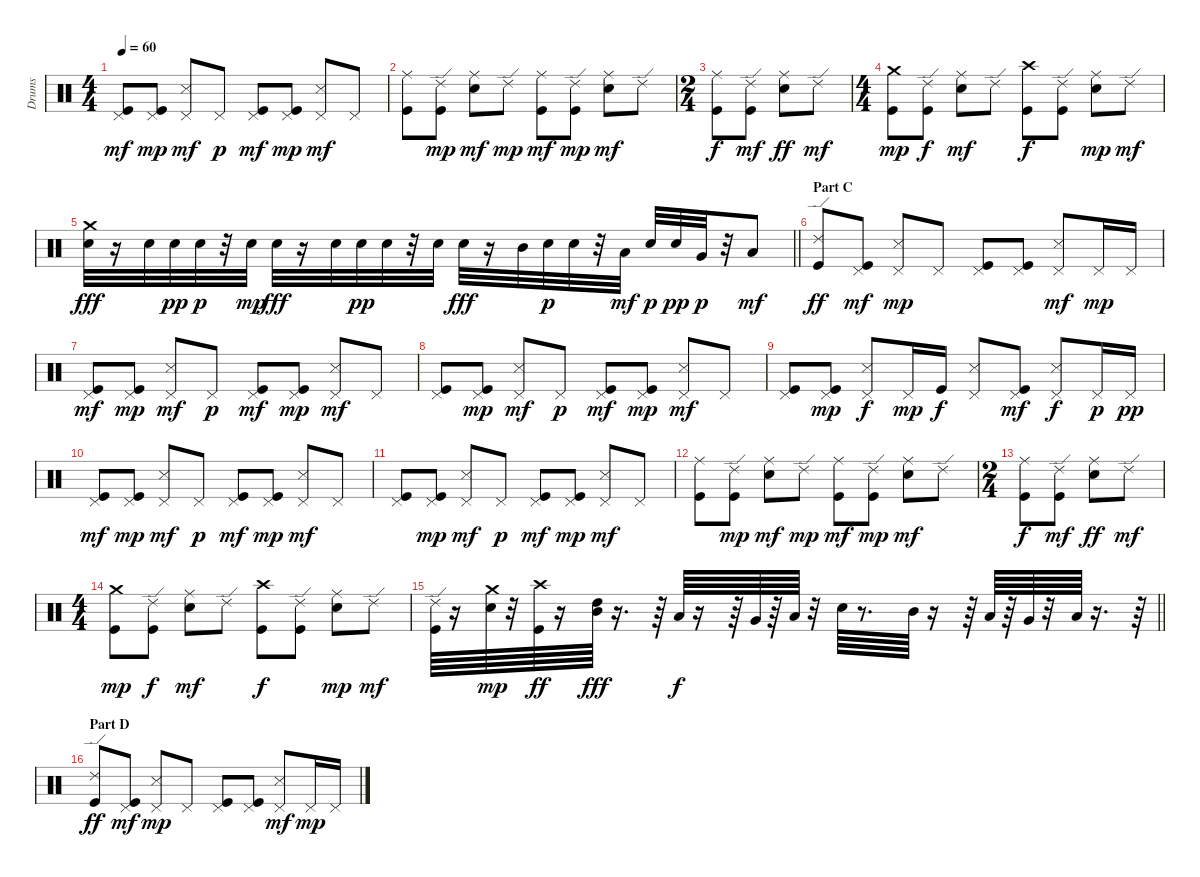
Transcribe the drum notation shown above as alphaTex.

\track ("Drums" "Drums") {instrument percussion}
\staff {score}
\articulation defaults
\ts (4 4)
\tempo 60
\clef neutral
\ks c
("Pedal Hi-Hat (hit)" "Kick (hit)").8{dy mf} ("Pedal Hi-Hat (hit)" "Kick (hit)").8{dy mp} ("Pedal Hi-Hat (hit)" "Snare (side stick) 3").8{dy mf} "Pedal Hi-Hat (hit)".8{dy p} ("Pedal Hi-Hat (hit)" "Kick (hit)").8{dy mf} ("Pedal Hi-Hat (hit)" "Kick (hit)").8{dy mp} ("Pedal Hi-Hat (hit)" "Snare (side stick) 3").8{dy mf} "Pedal Hi-Hat (hit)".8 |
("Ride (middle)" "Kick (hit)").8{volume 11} ("Ride (edge) 2" "Kick (hit)").8{dy mp} ("Ride (middle)" "Electric Snare (hit)").8{dy mf} "Ride (edge) 2".8{dy mp} ("Ride (middle)" "Kick (hit)").8{dy mf} ("Ride (edge) 2" "Kick (hit)").8{dy mp} ("Ride (middle)" "Electric Snare (hit)").8{dy mf} "Ride (edge) 2".8 |
\ts (2 4)
("Ride (middle)" "Kick (hit)").8{dy f} ("Ride (edge) 2" "Kick (hit)").8{dy mf} ("Ride (middle)" "Electric Snare (hit)").8{dy ff} "Ride (edge) 2".8{dy mf} |
\ts (4 4)
("Crash medium (hit)" "Kick (hit)").8{dy mp} ("Ride (edge) 2" "Kick (hit)").8{dy f} ("Ride (middle)" "Electric Snare (hit)").8{dy mf} "Ride (edge) 2".8 ("Crash high (hit)" "Kick (hit)").8{dy f} ("Ride (edge) 2" "Kick (hit)").8 ("Ride (middle)" "Electric Snare (hit)").8{dy mp} "Ride (edge) 2".8{dy mf} |
\barLineRight lightlight
("Crash medium (hit)" "Electric Snare (hit)").32{dy fff} r.16 "Electric Snare (hit)".32 "Electric Snare (hit)".32{dy pp} "Electric Snare (hit)".32{dy p} r.32 "Electric Snare (hit)".32{dy mp} "Electric Snare (hit)".32{dy fff} r.16 "Electric Snare (hit)".32 "Electric Snare (hit)".32{dy pp} "Electric Snare (hit)".32 r.32 "Electric Snare (hit)".32 "Electric Snare (hit)".32{dy fff} r.16 "Mid Tom (hit)".32 "Electric Snare (hit)".32{dy p} "Electric Snare (hit)".32 r.32 "Low Tom (hit)".32{dy mf} "Electric Snare (hit)".32{dy p} "Electric Snare (hit)".32{dy pp} "Very Low Tom (hit)".32{dy p} r.32 "Low Floor Tom (hit)".8{dy mf} |
\section ("" "Part C")
("Ride (edge) 2" "Kick (hit)").8{dy ff volume 10} ("Pedal Hi-Hat (hit)" "Kick (hit)").8{dy mf} ("Pedal Hi-Hat (hit)" "Snare (side stick) 3").8{dy mp} "Pedal Hi-Hat (hit)".8 ("Pedal Hi-Hat (hit)" "Kick (hit)").8 ("Pedal Hi-Hat (hit)" "Kick (hit)").8 ("Pedal Hi-Hat (hit)" "Snare (side stick) 3").8{dy mf} "Pedal Hi-Hat (hit)".16{dy mp} "Pedal Hi-Hat (hit)".16 |
("Pedal Hi-Hat (hit)" "Kick (hit)").8{dy mf} ("Pedal Hi-Hat (hit)" "Kick (hit)").8{dy mp} ("Pedal Hi-Hat (hit)" "Snare (side stick) 3").8{dy mf} "Pedal Hi-Hat (hit)".8{dy p} ("Pedal Hi-Hat (hit)" "Kick (hit)").8{dy mf} ("Pedal Hi-Hat (hit)" "Kick (hit)").8{dy mp} ("Pedal Hi-Hat (hit)" "Snare (side stick) 3").8{dy mf} "Pedal Hi-Hat (hit)".8 |
("Pedal Hi-Hat (hit)" "Kick (hit)").8 ("Pedal Hi-Hat (hit)" "Kick (hit)").8{dy mp} ("Pedal Hi-Hat (hit)" "Snare (side stick) 3").8{dy mf} "Pedal Hi-Hat (hit)".8{dy p} ("Pedal Hi-Hat (hit)" "Kick (hit)").8{dy mf} ("Pedal Hi-Hat (hit)" "Kick (hit)").8{dy mp} ("Pedal Hi-Hat (hit)" "Snare (side stick) 3").8{dy mf} "Pedal Hi-Hat (hit)".8 |
("Pedal Hi-Hat (hit)" "Kick (hit)").8 ("Pedal Hi-Hat (hit)" "Kick (hit)").8{dy mp} ("Pedal Hi-Hat (hit)" "Snare (side stick) 3").8{dy f} "Pedal Hi-Hat (hit)".16{dy mp} "Kick (hit)".16{dy f} ("Pedal Hi-Hat (hit)" "Snare (side stick) 3").8 ("Pedal Hi-Hat (hit)" "Kick (hit)").8{dy mf} ("Pedal Hi-Hat (hit)" "Snare (side stick) 3").8{dy f} "Pedal Hi-Hat (hit)".16{dy p} "Pedal Hi-Hat (hit)".16{dy pp} |
("Pedal Hi-Hat (hit)" "Kick (hit)").8{dy mf} ("Pedal Hi-Hat (hit)" "Kick (hit)").8{dy mp} ("Pedal Hi-Hat (hit)" "Snare (side stick) 3").8{dy mf} "Pedal Hi-Hat (hit)".8{dy p} ("Pedal Hi-Hat (hit)" "Kick (hit)").8{dy mf} ("Pedal Hi-Hat (hit)" "Kick (hit)").8{dy mp} ("Pedal Hi-Hat (hit)" "Snare (side stick) 3").8{dy mf} "Pedal Hi-Hat (hit)".8 |
("Pedal Hi-Hat (hit)" "Kick (hit)").8 ("Pedal Hi-Hat (hit)" "Kick (hit)").8{dy mp} ("Pedal Hi-Hat (hit)" "Snare (side stick) 3").8{dy mf} "Pedal Hi-Hat (hit)".8{dy p} ("Pedal Hi-Hat (hit)" "Kick (hit)").8{dy mf} ("Pedal Hi-Hat (hit)" "Kick (hit)").8{dy mp} ("Pedal Hi-Hat (hit)" "Snare (side stick) 3").8{dy mf} "Pedal Hi-Hat (hit)".8 |
("Ride (middle)" "Kick (hit)").8{volume 11} ("Ride (edge) 2" "Kick (hit)").8{dy mp} ("Ride (middle)" "Electric Snare (hit)").8{dy mf} "Ride (edge) 2".8{dy mp} ("Ride (middle)" "Kick (hit)").8{dy mf} ("Ride (edge) 2" "Kick (hit)").8{dy mp} ("Ride (middle)" "Electric Snare (hit)").8{dy mf} "Ride (edge) 2".8 |
\ts (2 4)
("Ride (middle)" "Kick (hit)").8{dy f} ("Ride (edge) 2" "Kick (hit)").8{dy mf} ("Ride (middle)" "Electric Snare (hit)").8{dy ff} "Ride (edge) 2".8{dy mf} |
\ts (4 4)
("Crash medium (hit)" "Kick (hit)").8{dy mp} ("Ride (edge) 2" "Kick (hit)").8{dy f} ("Ride (middle)" "Electric Snare (hit)").8{dy mf} "Ride (edge) 2".8 ("Crash high (hit)" "Kick (hit)").8{dy f} ("Ride (edge) 2" "Kick (hit)").8 ("Ride (middle)" "Electric Snare (hit)").8{dy mp} "Ride (edge) 2".8{dy mf} |
\barLineRight lightlight
("Ride (edge) 2" "Kick (hit)").64 r.16 ("Crash medium (hit)" "Electric Snare (hit)").64{dy mp} r.32 ("Crash high (hit)" "Kick (hit)").64{dy ff} r.16 ("High Tom (hit)" "Mid Tom (hit)").64{dy fff} r.16{d} r.64 "Low Tom (hit)".64{dy f} r.16 r.64 "Very Low Tom (hit)".64 r.64 "Low Floor Tom (hit)".64 r.32 "Electric Snare (hit)".64 r.8{d} "Mid Tom (hit)".64 r.16 r.64 "Low Tom (hit)".64 r.64 "Very Low Tom (hit)".64 r.32 "Low Floor Tom (hit)".64 r.16{d} r.64 |
\section ("" "Part D")
("Ride (edge) 2" "Kick (hit)").8{dy ff volume 11} ("Pedal Hi-Hat (hit)" "Kick (hit)").8{dy mf} ("Pedal Hi-Hat (hit)" "Snare (side stick) 3").8{dy mp} "Pedal Hi-Hat (hit)".8 ("Pedal Hi-Hat (hit)" "Kick (hit)").8 ("Pedal Hi-Hat (hit)" "Kick (hit)").8 ("Pedal Hi-Hat (hit)" "Snare (side stick) 3").8{dy mf} "Pedal Hi-Hat (hit)".16{dy mp} "Pedal Hi-Hat (hit)".16
